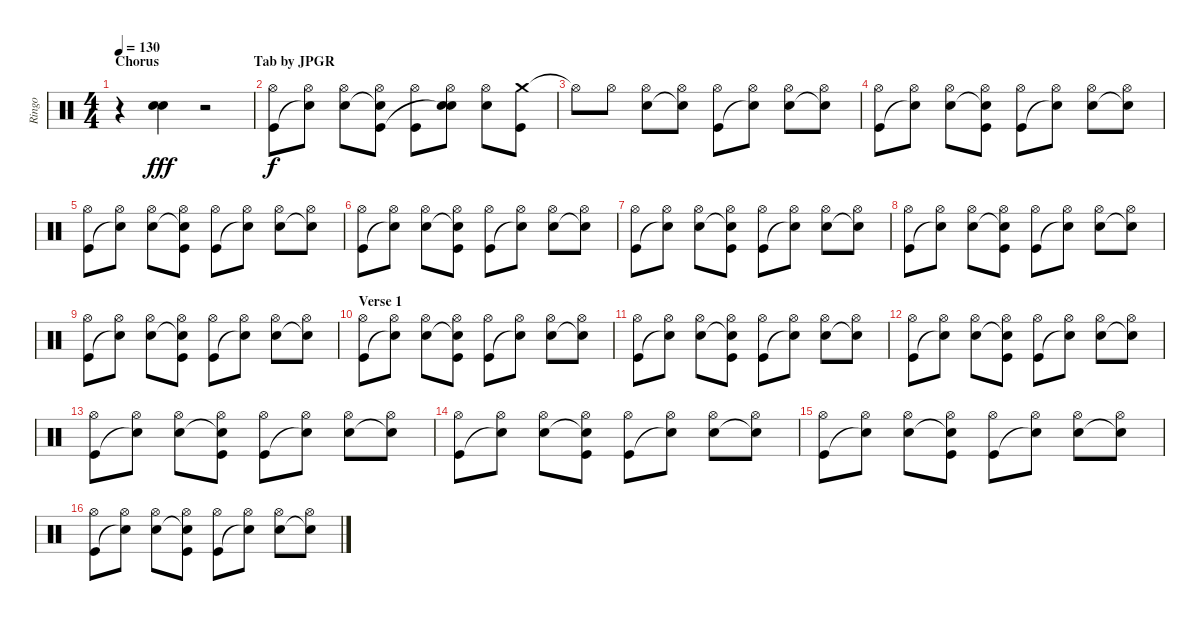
\track ("Ringo" "Ringo") {instrument percussion}
\staff {score}
\articulation defaults
\ts (4 4)
\section ("" "Chorus                           Tab by JPGR")
\tempo 130
\clef neutral
\ks c
r.4{dy fff} ("Electric Snare (hit)" "Snare (hit) 2").4 r.2 |
("Hi-Hat (open)" "Kick (hit)").8{dy f} ("Hi-Hat (open)" "Snare (hit)"{t}).8 ("Hi-Hat (open)" "Snare (hit) 2").8 ("Hi-Hat (open)" "Snare (hit)"{t} "Kick (hit)").8 ("Hi-Hat (open)" "Kick (hit)").8 ("Hi-Hat (open)" "Snare (hit) 2" "Snare (hit)"{t}).8 ("Hi-Hat (open)" "Snare (hit) 2").8 ("Crash medium (hit)" "Kick (hit)").8 |
"Hi-Hat (open)"{t}.8 "Hi-Hat (open)".8 ("Hi-Hat (open)" "Snare (hit) 2").8 ("Hi-Hat (open)" "Snare (hit)"{t}).8 ("Hi-Hat (open)" "Kick (hit)").8 ("Hi-Hat (open)" "Snare (hit)"{t}).8 ("Hi-Hat (open)" "Snare (hit) 2").8 ("Hi-Hat (open)" "Snare (hit)"{t}).8 |
("Hi-Hat (open)" "Kick (hit)").8 ("Hi-Hat (open)" "Snare (hit)"{t}).8 ("Hi-Hat (open)" "Snare (hit) 2").8 ("Hi-Hat (open)" "Snare (hit)"{t} "Kick (hit)").8 ("Hi-Hat (open)" "Kick (hit)").8 ("Hi-Hat (open)" "Snare (hit)"{t}).8 ("Hi-Hat (open)" "Snare (hit) 2").8 ("Hi-Hat (open)" "Snare (hit)"{t}).8 |
("Hi-Hat (open)" "Kick (hit)").8 ("Hi-Hat (open)" "Snare (hit)"{t}).8 ("Hi-Hat (open)" "Snare (hit) 2").8 ("Hi-Hat (open)" "Snare (hit)"{t} "Kick (hit)").8 ("Hi-Hat (open)" "Kick (hit)").8 ("Hi-Hat (open)" "Snare (hit)"{t}).8 ("Hi-Hat (open)" "Snare (hit) 2").8 ("Hi-Hat (open)" "Snare (hit)"{t}).8 |
("Hi-Hat (open)" "Kick (hit)").8 ("Hi-Hat (open)" "Snare (hit)"{t}).8 ("Hi-Hat (open)" "Snare (hit) 2").8 ("Hi-Hat (open)" "Snare (hit)"{t} "Kick (hit)").8 ("Hi-Hat (open)" "Kick (hit)").8 ("Hi-Hat (open)" "Snare (hit)"{t}).8 ("Hi-Hat (open)" "Snare (hit) 2").8 ("Hi-Hat (open)" "Snare (hit)"{t}).8 |
("Hi-Hat (open)" "Kick (hit)").8 ("Hi-Hat (open)" "Snare (hit)"{t}).8 ("Hi-Hat (open)" "Snare (hit) 2").8 ("Hi-Hat (open)" "Snare (hit)"{t} "Kick (hit)").8 ("Hi-Hat (open)" "Kick (hit)").8 ("Hi-Hat (open)" "Snare (hit)"{t}).8 ("Hi-Hat (open)" "Snare (hit) 2").8 ("Hi-Hat (open)" "Snare (hit)"{t}).8 |
("Hi-Hat (open)" "Kick (hit)").8 ("Hi-Hat (open)" "Snare (hit)"{t}).8 ("Hi-Hat (open)" "Snare (hit) 2").8 ("Hi-Hat (open)" "Snare (hit)"{t} "Kick (hit)").8 ("Hi-Hat (open)" "Kick (hit)").8 ("Hi-Hat (open)" "Snare (hit)"{t}).8 ("Hi-Hat (open)" "Snare (hit) 2").8 ("Hi-Hat (open)" "Snare (hit)"{t}).8 |
("Hi-Hat (open)" "Kick (hit)").8 ("Hi-Hat (open)" "Snare (hit)"{t}).8 ("Hi-Hat (open)" "Snare (hit) 2").8 ("Hi-Hat (open)" "Snare (hit)"{t} "Kick (hit)").8 ("Hi-Hat (open)" "Kick (hit)").8 ("Hi-Hat (open)" "Snare (hit)"{t}).8 ("Hi-Hat (open)" "Snare (hit) 2").8 ("Hi-Hat (open)" "Snare (hit)"{t}).8 |
\section ("" "Verse 1")
("Hi-Hat (open)" "Kick (hit)").8 ("Hi-Hat (open)" "Snare (hit)"{t}).8 ("Hi-Hat (open)" "Snare (hit) 2").8 ("Hi-Hat (open)" "Snare (hit)"{t} "Kick (hit)").8 ("Hi-Hat (open)" "Kick (hit)").8 ("Hi-Hat (open)" "Snare (hit)"{t}).8 ("Hi-Hat (open)" "Snare (hit) 2").8 ("Hi-Hat (open)" "Snare (hit)"{t}).8 |
("Hi-Hat (open)" "Kick (hit)").8 ("Hi-Hat (open)" "Snare (hit)"{t}).8 ("Hi-Hat (open)" "Snare (hit) 2").8 ("Hi-Hat (open)" "Snare (hit)"{t} "Kick (hit)").8 ("Hi-Hat (open)" "Kick (hit)").8 ("Hi-Hat (open)" "Snare (hit)"{t}).8 ("Hi-Hat (open)" "Snare (hit) 2").8 ("Hi-Hat (open)" "Snare (hit)"{t}).8 |
("Hi-Hat (open)" "Kick (hit)").8 ("Hi-Hat (open)" "Snare (hit)"{t}).8 ("Hi-Hat (open)" "Snare (hit) 2").8 ("Hi-Hat (open)" "Snare (hit)"{t} "Kick (hit)").8 ("Hi-Hat (open)" "Kick (hit)").8 ("Hi-Hat (open)" "Snare (hit)"{t}).8 ("Hi-Hat (open)" "Snare (hit) 2").8 ("Hi-Hat (open)" "Snare (hit)"{t}).8 |
("Hi-Hat (open)" "Kick (hit)").8 ("Hi-Hat (open)" "Snare (hit)"{t}).8 ("Hi-Hat (open)" "Snare (hit) 2").8 ("Hi-Hat (open)" "Snare (hit)"{t} "Kick (hit)").8 ("Hi-Hat (open)" "Kick (hit)").8 ("Hi-Hat (open)" "Snare (hit)"{t}).8 ("Hi-Hat (open)" "Snare (hit) 2").8 ("Hi-Hat (open)" "Snare (hit)"{t}).8 |
("Hi-Hat (open)" "Kick (hit)").8 ("Hi-Hat (open)" "Snare (hit)"{t}).8 ("Hi-Hat (open)" "Snare (hit) 2").8 ("Hi-Hat (open)" "Snare (hit)"{t} "Kick (hit)").8 ("Hi-Hat (open)" "Kick (hit)").8 ("Hi-Hat (open)" "Snare (hit)"{t}).8 ("Hi-Hat (open)" "Snare (hit) 2").8 ("Hi-Hat (open)" "Snare (hit)"{t}).8 |
("Hi-Hat (open)" "Kick (hit)").8 ("Hi-Hat (open)" "Snare (hit)"{t}).8 ("Hi-Hat (open)" "Snare (hit) 2").8 ("Hi-Hat (open)" "Snare (hit)"{t} "Kick (hit)").8 ("Hi-Hat (open)" "Kick (hit)").8 ("Hi-Hat (open)" "Snare (hit)"{t}).8 ("Hi-Hat (open)" "Snare (hit) 2").8 ("Hi-Hat (open)" "Snare (hit)"{t}).8 |
("Hi-Hat (open)" "Kick (hit)").8 ("Hi-Hat (open)" "Snare (hit)"{t}).8 ("Hi-Hat (open)" "Snare (hit) 2").8 ("Hi-Hat (open)" "Snare (hit)"{t} "Kick (hit)").8 ("Hi-Hat (open)" "Kick (hit)").8 ("Hi-Hat (open)" "Snare (hit)"{t}).8 ("Hi-Hat (open)" "Snare (hit) 2").8 ("Hi-Hat (open)" "Snare (hit)"{t}).8
